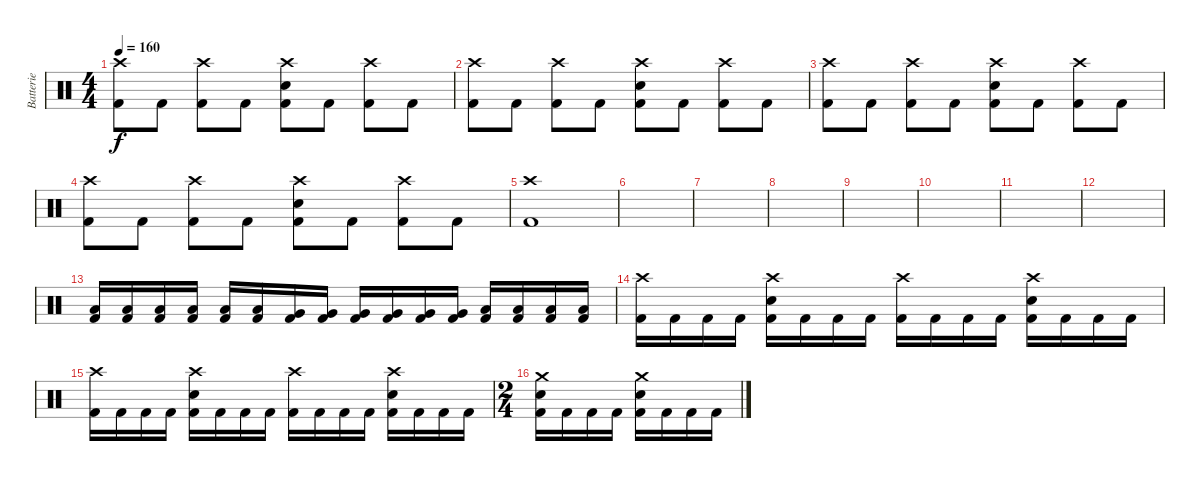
\track ("Batterie" "Batterie") {instrument percussion}
\staff {score}
\articulation defaults
\ts (4 4)
\tempo 160
\clef neutral
\ks c
("Crash high (hit)" "Kick (hit) 2").8{dy f} "Kick (hit) 2".8 ("Crash high (hit)" "Kick (hit) 2").8 "Kick (hit) 2".8 ("Crash high (hit)" "Electric Snare (hit)" "Kick (hit) 2").8 "Kick (hit) 2".8 ("Crash high (hit)" "Kick (hit) 2").8 "Kick (hit) 2".8 |
("Crash high (hit)" "Kick (hit) 2").8 "Kick (hit) 2".8 ("Crash high (hit)" "Kick (hit) 2").8 "Kick (hit) 2".8 ("Crash high (hit)" "Electric Snare (hit)" "Kick (hit) 2").8 "Kick (hit) 2".8 ("Crash high (hit)" "Kick (hit) 2").8 "Kick (hit) 2".8 |
("Crash high (hit)" "Kick (hit) 2").8 "Kick (hit) 2".8 ("Crash high (hit)" "Kick (hit) 2").8 "Kick (hit) 2".8 ("Crash high (hit)" "Electric Snare (hit)" "Kick (hit) 2").8 "Kick (hit) 2".8 ("Crash high (hit)" "Kick (hit) 2").8 "Kick (hit) 2".8 |
("Crash high (hit)" "Kick (hit) 2").8 "Kick (hit) 2".8 ("Crash high (hit)" "Kick (hit) 2").8 "Kick (hit) 2".8 ("Crash high (hit)" "Electric Snare (hit)" "Kick (hit) 2").8 "Kick (hit) 2".8 ("Crash high (hit)" "Kick (hit) 2").8 "Kick (hit) 2".8 |
("Crash high (hit)" "Kick (hit) 2").1 |
|
|
|
|
|
|
|
("Low Tom (hit)" "Kick (hit) 2").16 ("Low Tom (hit)" "Kick (hit) 2").16 ("Low Tom (hit)" "Kick (hit) 2").16 ("Low Tom (hit)" "Kick (hit) 2").16 ("Low Tom (hit)" "Kick (hit) 2").16 ("Low Tom (hit)" "Kick (hit) 2").16 ("Very Low Tom (hit)" "Kick (hit) 2").16 ("Very Low Tom (hit)" "Kick (hit) 2").16 ("Very Low Tom (hit)" "Kick (hit) 2").16 ("Very Low Tom (hit)" "Kick (hit) 2").16 ("Very Low Tom (hit)" "Kick (hit) 2").16 ("Very Low Tom (hit)" "Kick (hit) 2").16 ("Low Floor Tom (hit)" "Kick (hit) 2").16 ("Low Floor Tom (hit)" "Kick (hit) 2").16 ("Low Floor Tom (hit)" "Kick (hit) 2").16 ("Low Floor Tom (hit)" "Kick (hit) 2").16 |
("Crash high (hit)" "Kick (hit) 2").16 "Kick (hit) 2".16 "Kick (hit) 2".16 "Kick (hit) 2".16 ("Crash high (hit)" "Electric Snare (hit)" "Kick (hit) 2").16 "Kick (hit) 2".16 "Kick (hit) 2".16 "Kick (hit) 2".16 ("Crash high (hit)" "Kick (hit) 2").16 "Kick (hit) 2".16 "Kick (hit) 2".16 "Kick (hit) 2".16 ("Crash high (hit)" "Electric Snare (hit)" "Kick (hit) 2").16 "Kick (hit) 2".16 "Kick (hit) 2".16 "Kick (hit) 2".16 |
("Crash high (hit)" "Kick (hit) 2").16 "Kick (hit) 2".16 "Kick (hit) 2".16 "Kick (hit) 2".16 ("Crash high (hit)" "Electric Snare (hit)" "Kick (hit) 2").16 "Kick (hit) 2".16 "Kick (hit) 2".16 "Kick (hit) 2".16 ("Crash high (hit)" "Kick (hit) 2").16 "Kick (hit) 2".16 "Kick (hit) 2".16 "Kick (hit) 2".16 ("Crash high (hit)" "Electric Snare (hit)" "Kick (hit) 2").16 "Kick (hit) 2".16 "Kick (hit) 2".16 "Kick (hit) 2".16 |
\ts (2 4)
("Crash medium (hit)" "Electric Snare (hit)" "Kick (hit) 2").16 "Kick (hit) 2".16 "Kick (hit) 2".16 "Kick (hit) 2".16 ("Crash medium (hit)" "Electric Snare (hit)" "Kick (hit) 2").16 "Kick (hit) 2".16 "Kick (hit) 2".16 "Kick (hit) 2".16
